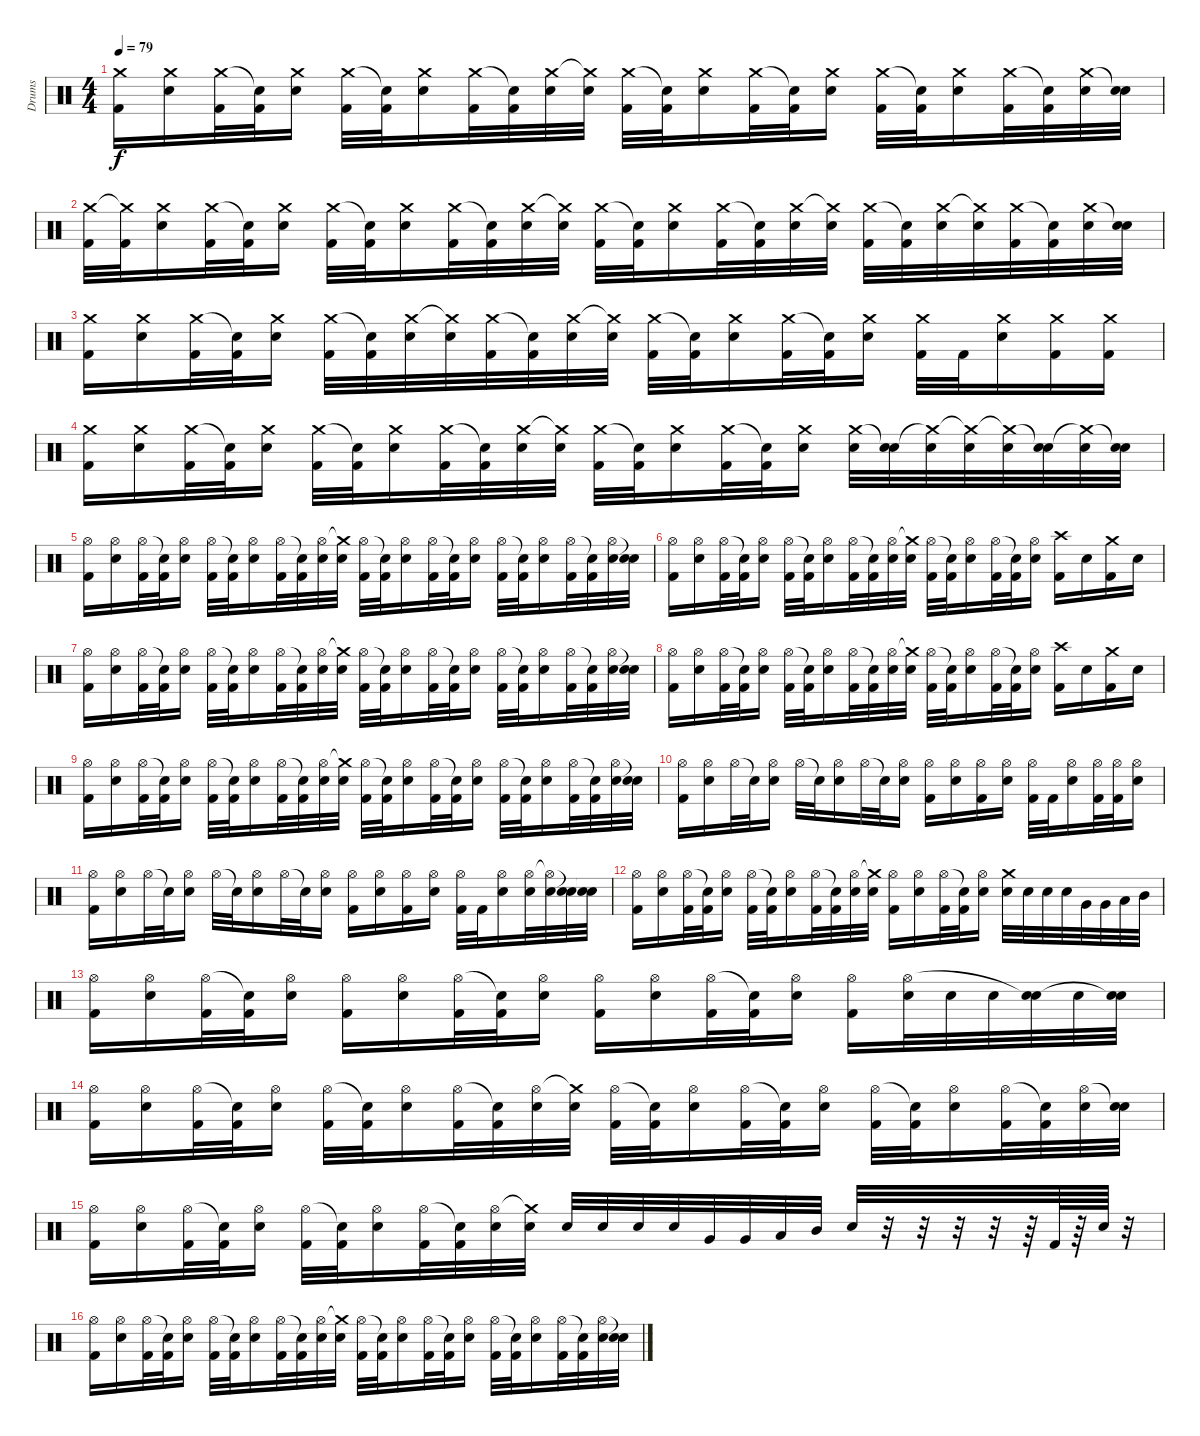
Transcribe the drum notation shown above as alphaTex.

\track ("Drums" "Drums") {instrument percussion}
\staff {score}
\articulation defaults
\ts (4 4)
\tempo 79
\clef neutral
\ks c
("Kick (hit) 2" "Crash medium (hit)").16{dy f volume 8} ("Electric Snare (hit)" "Crash medium (hit)").16 ("Kick (hit) 2" "Crash medium (hit)").32 ("Kick (hit) 2" "Snare (hit)"{t}).32 ("Electric Snare (hit)" "Crash medium (hit)").16 ("Kick (hit) 2" "Crash medium (hit)").32 ("Kick (hit) 2" "Snare (hit)"{t}).32 ("Electric Snare (hit)" "Crash medium (hit)").16 ("Kick (hit) 2" "Crash medium (hit)").32 ("Kick (hit) 2" "Snare (hit)"{t}).32 ("Electric Snare (hit)" "Crash medium (hit)").32 ("Electric Snare (hit)" "Crash medium (hit)"{t}).32 ("Kick (hit) 2" "Crash medium (hit)").32 ("Kick (hit) 2" "Snare (hit)"{t}).32 ("Electric Snare (hit)" "Crash medium (hit)").16 ("Kick (hit) 2" "Crash medium (hit)").32 ("Kick (hit) 2" "Snare (hit)"{t}).32 ("Electric Snare (hit)" "Crash medium (hit)").16 ("Kick (hit) 2" "Crash medium (hit)").32 ("Kick (hit) 2" "Snare (hit)"{t}).32 ("Electric Snare (hit)" "Crash medium (hit)").16 ("Kick (hit) 2" "Crash medium (hit)").32 ("Kick (hit) 2" "Snare (hit)"{t}).32 ("Electric Snare (hit)" "Crash medium (hit)").32 ("Electric Snare (hit)" "Snare (hit)"{t}).32 |
("Kick (hit) 2" "Crash medium (hit)").32 ("Kick (hit) 2" "Crash medium (hit)"{t}).32 ("Electric Snare (hit)" "Crash medium (hit)").16 ("Kick (hit) 2" "Crash medium (hit)").32 ("Kick (hit) 2" "Snare (hit)"{t}).32 ("Electric Snare (hit)" "Crash medium (hit)").16 ("Kick (hit) 2" "Crash medium (hit)").32 ("Kick (hit) 2" "Snare (hit)"{t}).32 ("Electric Snare (hit)" "Crash medium (hit)").16 ("Kick (hit) 2" "Crash medium (hit)").32 ("Kick (hit) 2" "Snare (hit)"{t}).32 ("Electric Snare (hit)" "Crash medium (hit)").32 ("Electric Snare (hit)" "Crash medium (hit)"{t}).32 ("Kick (hit) 2" "Crash medium (hit)").32 ("Kick (hit) 2" "Snare (hit)"{t}).32 ("Electric Snare (hit)" "Crash medium (hit)").16 ("Kick (hit) 2" "Crash medium (hit)").32 ("Kick (hit) 2" "Snare (hit)"{t}).32 ("Electric Snare (hit)" "Crash medium (hit)").32 ("Electric Snare (hit)" "Crash medium (hit)"{t}).32 ("Kick (hit) 2" "Crash medium (hit)").32 ("Kick (hit) 2" "Snare (hit)"{t}).32 ("Electric Snare (hit)" "Crash medium (hit)").32 ("Electric Snare (hit)" "Crash medium (hit)"{t}).32 ("Kick (hit) 2" "Crash medium (hit)").32 ("Kick (hit) 2" "Snare (hit)"{t}).32 ("Electric Snare (hit)" "Crash medium (hit)").32 ("Electric Snare (hit)" "Snare (hit)"{t}).32 |
("Kick (hit) 2" "Crash medium (hit)").16 ("Electric Snare (hit)" "Crash medium (hit)").16 ("Kick (hit) 2" "Crash medium (hit)").32 ("Kick (hit) 2" "Snare (hit)"{t}).32 ("Electric Snare (hit)" "Crash medium (hit)").16 ("Kick (hit) 2" "Crash medium (hit)").32 ("Kick (hit) 2" "Snare (hit)"{t}).32 ("Electric Snare (hit)" "Crash medium (hit)").32 ("Electric Snare (hit)" "Crash medium (hit)"{t}).32 ("Kick (hit) 2" "Crash medium (hit)").32 ("Kick (hit) 2" "Snare (hit)"{t}).32 ("Electric Snare (hit)" "Crash medium (hit)").32 ("Electric Snare (hit)" "Crash medium (hit)"{t}).32 ("Kick (hit) 2" "Crash medium (hit)").32 ("Kick (hit) 2" "Snare (hit)"{t}).32 ("Electric Snare (hit)" "Crash medium (hit)").16 ("Kick (hit) 2" "Crash medium (hit)").32 ("Kick (hit) 2" "Snare (hit)"{t}).32 ("Electric Snare (hit)" "Crash medium (hit)").16 ("Kick (hit) 2" "Crash medium (hit)").32 "Kick (hit) 2".32 ("Electric Snare (hit)" "Crash medium (hit)").16 ("Kick (hit) 2" "Crash medium (hit)").16 ("Kick (hit) 2" "Crash medium (hit)").16 |
("Kick (hit) 2" "Crash medium (hit)").16 ("Electric Snare (hit)" "Crash medium (hit)").16 ("Kick (hit) 2" "Crash medium (hit)").32 ("Kick (hit) 2" "Snare (hit)"{t}).32 ("Electric Snare (hit)" "Crash medium (hit)").16 ("Kick (hit) 2" "Crash medium (hit)").32 ("Kick (hit) 2" "Snare (hit)"{t}).32 ("Electric Snare (hit)" "Crash medium (hit)").16 ("Kick (hit) 2" "Crash medium (hit)").32 ("Kick (hit) 2" "Snare (hit)"{t}).32 ("Electric Snare (hit)" "Crash medium (hit)").32 ("Electric Snare (hit)" "Crash medium (hit)"{t}).32 ("Kick (hit) 2" "Crash medium (hit)").32 ("Kick (hit) 2" "Snare (hit)"{t}).32 ("Electric Snare (hit)" "Crash medium (hit)").16 ("Kick (hit) 2" "Crash medium (hit)").32 ("Kick (hit) 2" "Snare (hit)"{t}).32 ("Electric Snare (hit)" "Crash medium (hit)").16 ("Electric Snare (hit)" "Crash medium (hit)").32 ("Electric Snare (hit)" "Snare (hit)"{t}).32 ("Electric Snare (hit)" "Crash medium (hit)"{t}).32 ("Electric Snare (hit)" "Crash medium (hit)"{t}).32 ("Electric Snare (hit)" "Crash medium (hit)"{t}).32 ("Electric Snare (hit)" "Snare (hit)"{t}).32 ("Electric Snare (hit)" "Crash medium (hit)"{t}).32 ("Electric Snare (hit)" "Snare (hit)"{t}).32 |
("Kick (hit) 2" "Hi-Hat (open)").16{volume 13} ("Electric Snare (hit)" "Hi-Hat (open)").16 ("Kick (hit) 2" "Hi-Hat (open)").32 ("Kick (hit) 2" "Snare (hit)"{t}).32 ("Electric Snare (hit)" "Hi-Hat (open)").16 ("Kick (hit) 2" "Hi-Hat (open)").32 ("Kick (hit) 2" "Snare (hit)"{t}).32 ("Electric Snare (hit)" "Hi-Hat (open)").16 ("Kick (hit) 2" "Hi-Hat (open)").32 ("Kick (hit) 2" "Snare (hit)"{t}).32 ("Electric Snare (hit)" "Hi-Hat (open)").32 ("Electric Snare (hit)" "Crash medium (hit)"{t}).32 ("Kick (hit) 2" "Hi-Hat (open)").32 ("Kick (hit) 2" "Snare (hit)"{t}).32 ("Electric Snare (hit)" "Hi-Hat (open)").16 ("Kick (hit) 2" "Hi-Hat (open)").32 ("Kick (hit) 2" "Snare (hit)"{t}).32 ("Electric Snare (hit)" "Hi-Hat (open)").16 ("Kick (hit) 2" "Hi-Hat (open)").32 ("Kick (hit) 2" "Snare (hit)"{t}).32 ("Electric Snare (hit)" "Hi-Hat (open)").16 ("Kick (hit) 2" "Hi-Hat (open)").32 ("Kick (hit) 2" "Snare (hit)"{t}).32 ("Electric Snare (hit)" "Hi-Hat (open)").32 ("Electric Snare (hit)" "Snare (hit)"{t}).32 |
("Kick (hit) 2" "Hi-Hat (open)").16 ("Electric Snare (hit)" "Hi-Hat (open)").16 ("Kick (hit) 2" "Hi-Hat (open)").32 ("Kick (hit) 2" "Snare (hit)"{t}).32 ("Electric Snare (hit)" "Hi-Hat (open)").16 ("Kick (hit) 2" "Hi-Hat (open)").32 ("Kick (hit) 2" "Snare (hit)"{t}).32 ("Electric Snare (hit)" "Hi-Hat (open)").16 ("Kick (hit) 2" "Hi-Hat (open)").32 ("Kick (hit) 2" "Snare (hit)"{t}).32 ("Electric Snare (hit)" "Hi-Hat (open)").32 ("Electric Snare (hit)" "Crash medium (hit)"{t}).32 ("Kick (hit) 2" "Hi-Hat (open)").32 ("Kick (hit) 2" "Snare (hit)"{t}).32 ("Electric Snare (hit)" "Hi-Hat (open)").16 ("Kick (hit) 2" "Hi-Hat (open)").32 ("Kick (hit) 2" "Snare (hit)"{t}).32 ("Electric Snare (hit)" "Hi-Hat (open)").16 ("Kick (hit) 2" "Crash high (hit)").16 "Electric Snare (hit)".16 ("Kick (hit) 2" "Crash medium (hit)").16 "Electric Snare (hit)".16 |
("Kick (hit) 2" "Hi-Hat (open)").16 ("Electric Snare (hit)" "Hi-Hat (open)").16 ("Kick (hit) 2" "Hi-Hat (open)").32 ("Kick (hit) 2" "Snare (hit)"{t}).32 ("Electric Snare (hit)" "Hi-Hat (open)").16 ("Kick (hit) 2" "Hi-Hat (open)").32 ("Kick (hit) 2" "Snare (hit)"{t}).32 ("Electric Snare (hit)" "Hi-Hat (open)").16 ("Kick (hit) 2" "Hi-Hat (open)").32 ("Kick (hit) 2" "Snare (hit)"{t}).32 ("Electric Snare (hit)" "Hi-Hat (open)").32 ("Electric Snare (hit)" "Crash medium (hit)"{t}).32 ("Kick (hit) 2" "Hi-Hat (open)").32 ("Kick (hit) 2" "Snare (hit)"{t}).32 ("Electric Snare (hit)" "Hi-Hat (open)").16 ("Kick (hit) 2" "Hi-Hat (open)").32 ("Kick (hit) 2" "Snare (hit)"{t}).32 ("Electric Snare (hit)" "Hi-Hat (open)").16 ("Kick (hit) 2" "Hi-Hat (open)").32 ("Kick (hit) 2" "Snare (hit)"{t}).32 ("Electric Snare (hit)" "Hi-Hat (open)").16 ("Kick (hit) 2" "Hi-Hat (open)").32 ("Kick (hit) 2" "Snare (hit)"{t}).32 ("Electric Snare (hit)" "Hi-Hat (open)").32 ("Electric Snare (hit)" "Snare (hit)"{t}).32 |
("Kick (hit) 2" "Hi-Hat (open)").16 ("Electric Snare (hit)" "Hi-Hat (open)").16 ("Kick (hit) 2" "Hi-Hat (open)").32 ("Kick (hit) 2" "Snare (hit)"{t}).32 ("Electric Snare (hit)" "Hi-Hat (open)").16 ("Kick (hit) 2" "Hi-Hat (open)").32 ("Kick (hit) 2" "Snare (hit)"{t}).32 ("Electric Snare (hit)" "Hi-Hat (open)").16 ("Kick (hit) 2" "Hi-Hat (open)").32 ("Kick (hit) 2" "Snare (hit)"{t}).32 ("Electric Snare (hit)" "Hi-Hat (open)").32 ("Electric Snare (hit)" "Crash medium (hit)"{t}).32 ("Kick (hit) 2" "Hi-Hat (open)").32 ("Kick (hit) 2" "Snare (hit)"{t}).32 ("Electric Snare (hit)" "Hi-Hat (open)").16 ("Kick (hit) 2" "Hi-Hat (open)").32 ("Kick (hit) 2" "Snare (hit)"{t}).32 ("Electric Snare (hit)" "Hi-Hat (open)").16 ("Kick (hit) 2" "Crash high (hit)").16 "Electric Snare (hit)".16 ("Kick (hit) 2" "Crash medium (hit)").16 "Electric Snare (hit)".16 |
("Kick (hit) 2" "Hi-Hat (open)").16 ("Electric Snare (hit)" "Hi-Hat (open)").16 ("Kick (hit) 2" "Hi-Hat (open)").32 ("Kick (hit) 2" "Snare (hit)"{t}).32 ("Electric Snare (hit)" "Hi-Hat (open)").16 ("Kick (hit) 2" "Hi-Hat (open)").32 ("Kick (hit) 2" "Snare (hit)"{t}).32 ("Electric Snare (hit)" "Hi-Hat (open)").16 ("Kick (hit) 2" "Hi-Hat (open)").32 ("Kick (hit) 2" "Snare (hit)"{t}).32 ("Electric Snare (hit)" "Hi-Hat (open)").32 ("Electric Snare (hit)" "Crash medium (hit)"{t}).32 ("Kick (hit) 2" "Hi-Hat (open)").32 ("Kick (hit) 2" "Snare (hit)"{t}).32 ("Electric Snare (hit)" "Hi-Hat (open)").16 ("Kick (hit) 2" "Hi-Hat (open)").32 ("Kick (hit) 2" "Snare (hit)"{t}).32 ("Electric Snare (hit)" "Hi-Hat (open)").16 ("Kick (hit) 2" "Hi-Hat (open)").32 ("Kick (hit) 2" "Snare (hit)"{t}).32 ("Electric Snare (hit)" "Hi-Hat (open)").16 ("Kick (hit) 2" "Hi-Hat (open)").32 ("Kick (hit) 2" "Snare (hit)"{t}).32 ("Electric Snare (hit)" "Hi-Hat (open)").32 ("Electric Snare (hit)" "Snare (hit)"{t}).32 |
("Kick (hit) 2" "Hi-Hat (open)").16 ("Electric Snare (hit)" "Hi-Hat (open)").16 "Hi-Hat (open)".32 "Snare (hit)"{t}.32 ("Electric Snare (hit)" "Hi-Hat (open)").16 "Hi-Hat (open)".32 "Snare (hit)"{t}.32 ("Electric Snare (hit)" "Hi-Hat (open)").16 "Hi-Hat (open)".32 "Snare (hit)"{t}.32 ("Electric Snare (hit)" "Hi-Hat (open)").16 ("Kick (hit) 2" "Hi-Hat (open)").16 ("Electric Snare (hit)" "Hi-Hat (open)").16 ("Kick (hit) 2" "Hi-Hat (open)").16 ("Electric Snare (hit)" "Hi-Hat (open)").16 ("Kick (hit) 2" "Hi-Hat (open)").32 "Kick (hit) 2".32 ("Electric Snare (hit)" "Hi-Hat (open)").16 ("Kick (hit) 2" "Hi-Hat (open)").32 ("Kick (hit) 2" "Hi-Hat (open)").32 ("Electric Snare (hit)" "Hi-Hat (open)").16 |
("Kick (hit) 2" "Hi-Hat (open)").16 ("Electric Snare (hit)" "Hi-Hat (open)").16 "Hi-Hat (open)".32 "Snare (hit)"{t}.32 ("Electric Snare (hit)" "Hi-Hat (open)").16 "Hi-Hat (open)".32 "Snare (hit)"{t}.32 ("Electric Snare (hit)" "Hi-Hat (open)").16 "Hi-Hat (open)".32 "Snare (hit)"{t}.32 ("Electric Snare (hit)" "Hi-Hat (open)").16 ("Kick (hit) 2" "Hi-Hat (open)").16 ("Electric Snare (hit)" "Hi-Hat (open)").16 ("Kick (hit) 2" "Hi-Hat (open)").16 ("Electric Snare (hit)" "Hi-Hat (open)").16 ("Kick (hit) 2" "Hi-Hat (open)").32 "Kick (hit) 2".32 ("Electric Snare (hit)" "Hi-Hat (open)").16 ("Electric Snare (hit)" "Hi-Hat (open)").32 ("Electric Snare (hit)" "Hi-Hat (open)"{t}).32 ("Electric Snare (hit)" "Snare (hit)"{t}).32 ("Electric Snare (hit)" "Snare (hit)"{t}).32 |
("Kick (hit) 2" "Hi-Hat (open)").16 ("Electric Snare (hit)" "Hi-Hat (open)").16 ("Kick (hit) 2" "Hi-Hat (open)").32 ("Kick (hit) 2" "Snare (hit)"{t}).32 ("Electric Snare (hit)" "Hi-Hat (open)").16 ("Kick (hit) 2" "Hi-Hat (open)").32 ("Kick (hit) 2" "Snare (hit)"{t}).32 ("Electric Snare (hit)" "Hi-Hat (open)").16 ("Kick (hit) 2" "Hi-Hat (open)").32 ("Kick (hit) 2" "Snare (hit)"{t}).32 ("Electric Snare (hit)" "Hi-Hat (open)").32 ("Electric Snare (hit)" "Crash medium (hit)"{t}).32 ("Kick (hit) 2" "Hi-Hat (open)").16 ("Electric Snare (hit)" "Hi-Hat (open)").16 ("Kick (hit) 2" "Hi-Hat (open)").32 ("Kick (hit) 2" "Snare (hit)"{t}).32 ("Electric Snare (hit)" "Hi-Hat (open)").16 ("Electric Snare (hit)" "Crash medium (hit)").32 "Electric Snare (hit)".32 "Electric Snare (hit)".32 "Electric Snare (hit)".32 "Very Low Tom (hit)".32 "Very Low Tom (hit)".32 "Low Tom (hit)".32 "Mid Tom (hit)".32 |
("Kick (hit) 2" "Hi-Hat (open)").16 ("Electric Snare (hit)" "Hi-Hat (open)").16 ("Kick (hit) 2" "Hi-Hat (open)").32 ("Kick (hit) 2" "Snare (hit)"{t}).32 ("Electric Snare (hit)" "Hi-Hat (open)").16 ("Kick (hit) 2" "Hi-Hat (open)").16 ("Electric Snare (hit)" "Hi-Hat (open)").16 ("Kick (hit) 2" "Hi-Hat (open)").32 ("Kick (hit) 2" "Snare (hit)"{t}).32 ("Electric Snare (hit)" "Hi-Hat (open)").16 ("Kick (hit) 2" "Hi-Hat (open)").16 ("Electric Snare (hit)" "Hi-Hat (open)").16 ("Kick (hit) 2" "Hi-Hat (open)").32 ("Kick (hit) 2" "Snare (hit)"{t}).32 ("Electric Snare (hit)" "Hi-Hat (open)").16 ("Kick (hit) 2" "Hi-Hat (open)").16 ("Electric Snare (hit)" "Hi-Hat (open)").32 "Electric Snare (hit)".32 "Electric Snare (hit)".32 ("Electric Snare (hit)" "Snare (hit)"{t}).32 "Electric Snare (hit)".32 ("Electric Snare (hit)" "Snare (hit)"{t}).32 |
("Kick (hit) 2" "Hi-Hat (open)").16 ("Electric Snare (hit)" "Hi-Hat (open)").16 ("Kick (hit) 2" "Hi-Hat (open)").32 ("Kick (hit) 2" "Snare (hit)"{t}).32 ("Electric Snare (hit)" "Hi-Hat (open)").16 ("Kick (hit) 2" "Hi-Hat (open)").32 ("Kick (hit) 2" "Snare (hit)"{t}).32 ("Electric Snare (hit)" "Hi-Hat (open)").16 ("Kick (hit) 2" "Hi-Hat (open)").32 ("Kick (hit) 2" "Snare (hit)"{t}).32 ("Electric Snare (hit)" "Hi-Hat (open)").32 ("Electric Snare (hit)" "Crash medium (hit)"{t}).32 ("Kick (hit) 2" "Hi-Hat (open)").32 ("Kick (hit) 2" "Snare (hit)"{t}).32 ("Electric Snare (hit)" "Hi-Hat (open)").16 ("Kick (hit) 2" "Hi-Hat (open)").32 ("Kick (hit) 2" "Snare (hit)"{t}).32 ("Electric Snare (hit)" "Hi-Hat (open)").16 ("Kick (hit) 2" "Hi-Hat (open)").32 ("Kick (hit) 2" "Snare (hit)"{t}).32 ("Electric Snare (hit)" "Hi-Hat (open)").16 ("Kick (hit) 2" "Hi-Hat (open)").32 ("Kick (hit) 2" "Snare (hit)"{t}).32 ("Electric Snare (hit)" "Hi-Hat (open)").32 ("Electric Snare (hit)" "Snare (hit)"{t}).32 |
("Kick (hit) 2" "Hi-Hat (open)").16 ("Electric Snare (hit)" "Hi-Hat (open)").16 ("Kick (hit) 2" "Hi-Hat (open)").32 ("Kick (hit) 2" "Snare (hit)"{t}).32 ("Electric Snare (hit)" "Hi-Hat (open)").16 ("Kick (hit) 2" "Hi-Hat (open)").32 ("Kick (hit) 2" "Snare (hit)"{t}).32 ("Electric Snare (hit)" "Hi-Hat (open)").16 ("Kick (hit) 2" "Hi-Hat (open)").32 ("Kick (hit) 2" "Snare (hit)"{t}).32 ("Electric Snare (hit)" "Hi-Hat (open)").32 ("Electric Snare (hit)" "Crash medium (hit)"{t}).32 "Electric Snare (hit)".32 "Electric Snare (hit)".32 "Electric Snare (hit)".32 "Electric Snare (hit)".32 "Very Low Tom (hit)".32 "Very Low Tom (hit)".32 "Low Tom (hit)".32 "Mid Tom (hit)".32 "Electric Snare (hit)".32 r.32 r.32 r.32 r.32 r.64 "Kick (hit) 2".64 r.64 "Electric Snare (hit)".64 r.32 |
("Kick (hit) 2" "Hi-Hat (open)").16 ("Electric Snare (hit)" "Hi-Hat (open)").16 ("Kick (hit) 2" "Hi-Hat (open)").32 ("Kick (hit) 2" "Snare (hit)"{t}).32 ("Electric Snare (hit)" "Hi-Hat (open)").16 ("Kick (hit) 2" "Hi-Hat (open)").32 ("Kick (hit) 2" "Snare (hit)"{t}).32 ("Electric Snare (hit)" "Hi-Hat (open)").16 ("Kick (hit) 2" "Hi-Hat (open)").32 ("Kick (hit) 2" "Snare (hit)"{t}).32 ("Electric Snare (hit)" "Hi-Hat (open)").32 ("Electric Snare (hit)" "Crash medium (hit)"{t}).32 ("Kick (hit) 2" "Hi-Hat (open)").32 ("Kick (hit) 2" "Snare (hit)"{t}).32 ("Electric Snare (hit)" "Hi-Hat (open)").16 ("Kick (hit) 2" "Hi-Hat (open)").32 ("Kick (hit) 2" "Snare (hit)"{t}).32 ("Electric Snare (hit)" "Hi-Hat (open)").16 ("Kick (hit) 2" "Hi-Hat (open)").32 ("Kick (hit) 2" "Snare (hit)"{t}).32 ("Electric Snare (hit)" "Hi-Hat (open)").16 ("Kick (hit) 2" "Hi-Hat (open)").32 ("Kick (hit) 2" "Snare (hit)"{t}).32 ("Electric Snare (hit)" "Hi-Hat (open)").32 ("Electric Snare (hit)" "Snare (hit)"{t}).32
